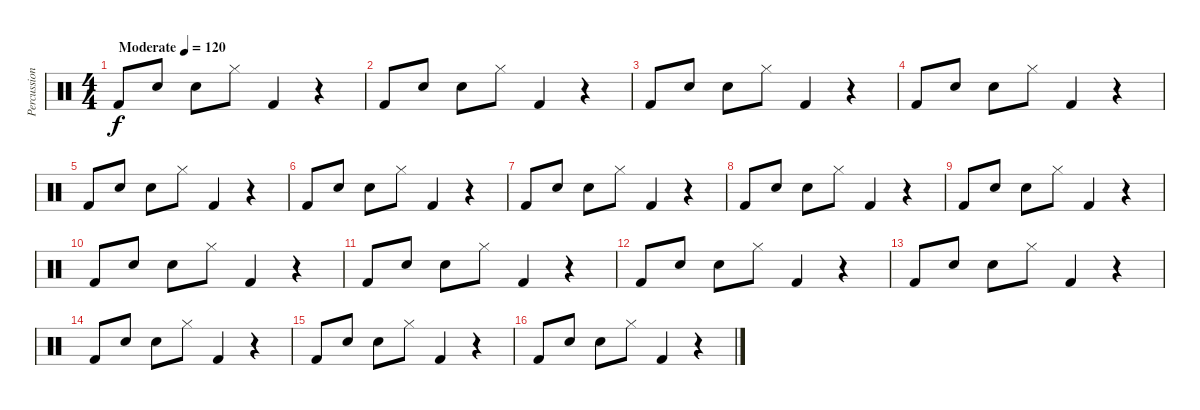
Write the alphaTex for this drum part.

\track ("Percussion" "Percussion") {instrument percussion}
\staff {score}
\articulation defaults
\ts (4 4)
\tempo (120 "Moderate")
\clef neutral
\ks c "Kick (hit) 2".8{dy f} "Snare (hit) 2".8 "Electric Snare (hit)".8 "Hi-Hat (closed)".8 "Kick (hit) 2".4
r.4 |
"Kick (hit) 2".8 "Snare (hit) 2".8 "Electric Snare (hit)".8 "Hi-Hat (closed)".8 "Kick (hit) 2".4 r.4 |
"Kick (hit) 2".8 "Snare (hit) 2".8 "Electric Snare (hit)".8 "Hi-Hat (closed)".8 "Kick (hit) 2".4 r.4 |
"Kick (hit) 2".8 "Snare (hit) 2".8 "Electric Snare (hit)".8 "Hi-Hat (closed)".8 "Kick (hit) 2".4 r.4 |
"Kick (hit) 2".8 "Snare (hit) 2".8 "Electric Snare (hit)".8 "Hi-Hat (closed)".8 "Kick (hit) 2".4 r.4 |
"Kick (hit) 2".8 "Snare (hit) 2".8 "Electric Snare (hit)".8 "Hi-Hat (closed)".8 "Kick (hit) 2".4 r.4 |
"Kick (hit) 2".8 "Snare (hit) 2".8 "Electric Snare (hit)".8 "Hi-Hat (closed)".8 "Kick (hit) 2".4 r.4 |
"Kick (hit) 2".8 "Snare (hit) 2".8 "Electric Snare (hit)".8 "Hi-Hat (closed)".8 "Kick (hit) 2".4 r.4 |
"Kick (hit) 2".8 "Snare (hit) 2".8 "Electric Snare (hit)".8 "Hi-Hat (closed)".8 "Kick (hit) 2".4 r.4 |
"Kick (hit) 2".8 "Snare (hit) 2".8 "Electric Snare (hit)".8 "Hi-Hat (closed)".8 "Kick (hit) 2".4 r.4 |
"Kick (hit) 2".8 "Snare (hit) 2".8 "Electric Snare (hit)".8 "Hi-Hat (closed)".8 "Kick (hit) 2".4 r.4 |
"Kick (hit) 2".8 "Snare (hit) 2".8 "Electric Snare (hit)".8 "Hi-Hat (closed)".8 "Kick (hit) 2".4 r.4 |
"Kick (hit) 2".8 "Snare (hit) 2".8 "Electric Snare (hit)".8 "Hi-Hat (closed)".8 "Kick (hit) 2".4 r.4 |
"Kick (hit) 2".8 "Snare (hit) 2".8 "Electric Snare (hit)".8 "Hi-Hat (closed)".8 "Kick (hit) 2".4 r.4 |
"Kick (hit) 2".8 "Snare (hit) 2".8 "Electric Snare (hit)".8 "Hi-Hat (closed)".8 "Kick (hit) 2".4 r.4 |
"Kick (hit) 2".8 "Snare (hit) 2".8 "Electric Snare (hit)".8 "Hi-Hat (closed)".8 "Kick (hit) 2".4 r.4
